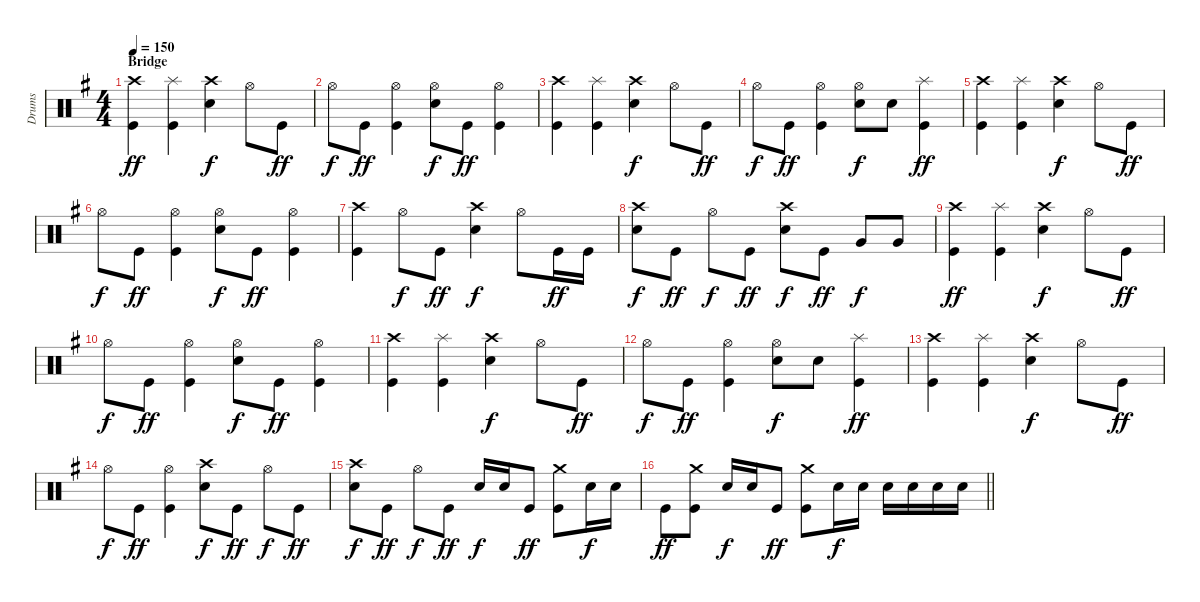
\track ("Drums" "Drums") {instrument percussion}
\staff {score}
\articulation defaults
\ts (4 4)
\section ("" "Bridge")
\tempo 150
\clef neutral
\ks g
("Crash high (hit)" "Kick (hit)").4{dy ff} ("Splash (hit)" "Kick (hit)").4 ("Crash high (hit)" "Electric Snare (hit)").4{dy f} "Hi-Hat (open)".8 "Kick (hit)".8{dy ff} |
"Hi-Hat (open)".8{dy f} "Kick (hit)".8{dy ff} ("Hi-Hat (open)" "Kick (hit)").4 ("Hi-Hat (open)" "Electric Snare (hit)").8{dy f} "Kick (hit)".8{dy ff} ("Hi-Hat (open)" "Kick (hit)").4 |
("Crash high (hit)" "Kick (hit)").4 ("Splash (hit)" "Kick (hit)").4 ("Crash high (hit)" "Electric Snare (hit)").4{dy f} "Hi-Hat (open)".8 "Kick (hit)".8{dy ff} |
"Hi-Hat (open)".8{dy f} "Kick (hit)".8{dy ff} ("Hi-Hat (open)" "Kick (hit)").4 ("Hi-Hat (open)" "Electric Snare (hit)").8{dy f} "Electric Snare (hit)".8 ("Splash (hit)" "Kick (hit)").4{dy ff} |
("Crash high (hit)" "Kick (hit)").4 ("Splash (hit)" "Kick (hit)").4 ("Crash high (hit)" "Electric Snare (hit)").4{dy f} "Hi-Hat (open)".8 "Kick (hit)".8{dy ff} |
"Hi-Hat (open)".8{dy f} "Kick (hit)".8{dy ff} ("Hi-Hat (open)" "Kick (hit)").4 ("Hi-Hat (open)" "Electric Snare (hit)").8{dy f} "Kick (hit)".8{dy ff} ("Hi-Hat (open)" "Kick (hit)").4 |
("Crash high (hit)" "Kick (hit)").4 "Hi-Hat (open)".8{dy f} "Kick (hit)".8{dy ff} ("Crash high (hit)" "Electric Snare (hit)").4{dy f} "Hi-Hat (open)".8 "Kick (hit)".16{dy ff} "Kick (hit)".16 |
("Crash high (hit)" "Electric Snare (hit)").8{dy f} "Kick (hit)".8{dy ff} "Hi-Hat (open)".8{dy f} "Kick (hit)".8{dy ff} ("Crash high (hit)" "Electric Snare (hit)").8{dy f} "Kick (hit)".8{dy ff} "Very Low Tom (hit)".8{dy f} "Very Low Tom (hit)".8 |
("Crash high (hit)" "Kick (hit)").4{dy ff} ("Splash (hit)" "Kick (hit)").4 ("Crash high (hit)" "Electric Snare (hit)").4{dy f} "Hi-Hat (open)".8 "Kick (hit)".8{dy ff} |
"Hi-Hat (open)".8{dy f} "Kick (hit)".8{dy ff} ("Hi-Hat (open)" "Kick (hit)").4 ("Hi-Hat (open)" "Electric Snare (hit)").8{dy f} "Kick (hit)".8{dy ff} ("Hi-Hat (open)" "Kick (hit)").4 |
("Crash high (hit)" "Kick (hit)").4 ("Splash (hit)" "Kick (hit)").4 ("Crash high (hit)" "Electric Snare (hit)").4{dy f} "Hi-Hat (open)".8 "Kick (hit)".8{dy ff} |
"Hi-Hat (open)".8{dy f} "Kick (hit)".8{dy ff} ("Hi-Hat (open)" "Kick (hit)").4 ("Hi-Hat (open)" "Electric Snare (hit)").8{dy f} "Electric Snare (hit)".8 ("Splash (hit)" "Kick (hit)").4{dy ff} |
("Crash high (hit)" "Kick (hit)").4 ("Splash (hit)" "Kick (hit)").4 ("Crash high (hit)" "Electric Snare (hit)").4{dy f} "Hi-Hat (open)".8 "Kick (hit)".8{dy ff} |
"Hi-Hat (open)".8{dy f} "Kick (hit)".8{dy ff} ("Hi-Hat (open)" "Kick (hit)").4 ("Crash high (hit)" "Electric Snare (hit)").8{dy f} "Kick (hit)".8{dy ff} "Hi-Hat (open)".8{dy f} "Kick (hit)".8{dy ff} |
("Crash high (hit)" "Electric Snare (hit)").8{dy f} "Kick (hit)".8{dy ff} "Hi-Hat (open)".8{dy f} "Kick (hit)".8{dy ff} "Electric Snare (hit)".16{dy f} "Electric Snare (hit)".16 "Kick (hit)".8{dy ff} ("Crash medium (hit)" "Kick (hit)").8 "Electric Snare (hit)".16{dy f} "Electric Snare (hit)".16 |
\barLineRight lightlight "Kick (hit)".8{dy ff}
("Crash medium (hit)" "Kick (hit)").8 "Electric Snare (hit)".16{dy f} "Electric Snare (hit)".16 "Kick (hit)".8{dy ff} ("Crash medium (hit)" "Kick (hit)").8 "Electric Snare (hit)".16{dy f} "Electric Snare (hit)".16 "Electric Snare (hit)".16 "Electric Snare (hit)".16 "Electric Snare (hit)".16 "Electric Snare (hit)".16
